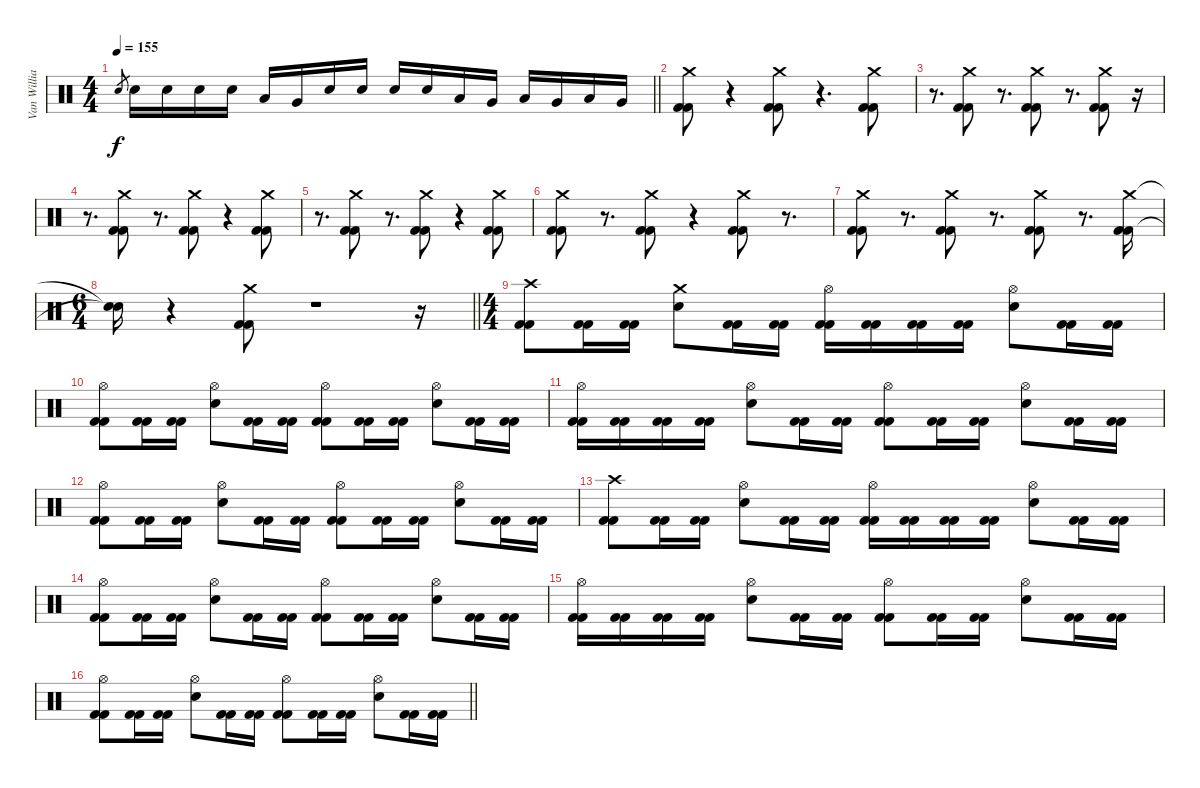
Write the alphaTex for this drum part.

\track ("Van Williams" "Van Willia") {instrument percussion}
\staff {score}
\articulation defaults
\ts (4 4)
\tempo 155
\clef neutral
\barLineRight lightlight
\ks c "Electric Snare (hit)".8{gr dy f} "Electric Snare (hit)".16 "Electric Snare (hit)".16 "Electric Snare (hit)".16 "Electric Snare (hit)".16 "Low Tom (hit)".16 "Very Low Tom (hit)".16 "Electric Snare (hit)".16 "Electric Snare (hit)".16 "Electric Snare (hit)".16 "Electric Snare (hit)".16 "Low Tom (hit)".16 "Very Low Tom (hit)".16 "Low Tom (hit)".16 "Very Low Tom (hit)".16 "Low Tom (hit)".16 "Very Low Tom (hit)".16
|
("Crash medium (hit)" "Kick (hit) 2" "Kick (hit) 2").8 r.4 ("Crash medium (hit)" "Kick (hit) 2" "Kick (hit) 2").8 r.4{d} ("Crash medium (hit)" "Kick (hit) 2" "Kick (hit) 2").8 |
r.8{d} ("Crash medium (hit)" "Kick (hit) 2" "Kick (hit) 2").8 r.8{d} ("Crash medium (hit)" "Kick (hit) 2" "Kick (hit) 2").8 r.8{d} ("Crash medium (hit)" "Kick (hit) 2" "Kick (hit) 2").8 r.16 |
r.8{d} ("Crash medium (hit)" "Kick (hit) 2" "Kick (hit) 2").8 r.8{d} ("Crash medium (hit)" "Kick (hit) 2" "Kick (hit) 2").8 r.4 ("Crash medium (hit)" "Kick (hit) 2" "Kick (hit) 2").8 |
r.8{d} ("Crash medium (hit)" "Kick (hit) 2" "Kick (hit) 2").8 r.8{d} ("Crash medium (hit)" "Kick (hit) 2" "Kick (hit) 2").8 r.4 ("Crash medium (hit)" "Kick (hit) 2" "Kick (hit) 2").8 |
("Crash medium (hit)" "Kick (hit) 2" "Kick (hit) 2").8 r.8{d} ("Crash medium (hit)" "Kick (hit) 2" "Kick (hit) 2").8 r.4 ("Crash medium (hit)" "Kick (hit) 2" "Kick (hit) 2").8 r.8{d} |
("Crash medium (hit)" "Kick (hit) 2" "Kick (hit) 2").8 r.8{d} ("Crash medium (hit)" "Kick (hit) 2" "Kick (hit) 2").8 r.8{d} ("Crash medium (hit)" "Kick (hit) 2" "Kick (hit) 2").8 r.8{d} ("Crash medium (hit)" "Kick (hit) 2" "Kick (hit) 2").16 |
\ts (6 4)
\barLineRight lightlight
("Snare (hit)"{t} "Snare (hit)"{t}).16 r.4 ("Crash medium (hit)" "Kick (hit) 2" "Kick (hit) 2").8 r.1 r.16 |
\ts (4 4)
("Crash high (hit)" "Kick (hit) 2" "Kick (hit) 2").8 ("Kick (hit) 2" "Kick (hit) 2").16 ("Kick (hit) 2" "Kick (hit) 2").16 ("Crash medium (hit)" "Electric Snare (hit)").8 ("Kick (hit) 2" "Kick (hit) 2").16 ("Kick (hit) 2" "Kick (hit) 2").16 ("Hi-Hat (open)" "Kick (hit) 2" "Kick (hit) 2").16 ("Kick (hit) 2" "Kick (hit) 2").16 ("Kick (hit) 2" "Kick (hit) 2").16 ("Kick (hit) 2" "Kick (hit) 2").16 ("Hi-Hat (open)" "Electric Snare (hit)").8 ("Kick (hit) 2" "Kick (hit) 2").16 ("Kick (hit) 2" "Kick (hit) 2").16 |
("Hi-Hat (open)" "Kick (hit) 2" "Kick (hit) 2").8 ("Kick (hit) 2" "Kick (hit) 2").16 ("Kick (hit) 2" "Kick (hit) 2").16 ("Hi-Hat (open)" "Electric Snare (hit)").8 ("Kick (hit) 2" "Kick (hit) 2").16 ("Kick (hit) 2" "Kick (hit) 2").16 ("Hi-Hat (open)" "Kick (hit) 2" "Kick (hit) 2").8 ("Kick (hit) 2" "Kick (hit) 2").16 ("Kick (hit) 2" "Kick (hit) 2").16 ("Hi-Hat (open)" "Electric Snare (hit)").8 ("Kick (hit) 2" "Kick (hit) 2").16 ("Kick (hit) 2" "Kick (hit) 2").16 |
("Hi-Hat (open)" "Kick (hit) 2" "Kick (hit) 2").16 ("Kick (hit) 2" "Kick (hit) 2").16 ("Kick (hit) 2" "Kick (hit) 2").16 ("Kick (hit) 2" "Kick (hit) 2").16 ("Hi-Hat (open)" "Electric Snare (hit)").8 ("Kick (hit) 2" "Kick (hit) 2").16 ("Kick (hit) 2" "Kick (hit) 2").16 ("Hi-Hat (open)" "Kick (hit) 2" "Kick (hit) 2").8 ("Kick (hit) 2" "Kick (hit) 2").16 ("Kick (hit) 2" "Kick (hit) 2").16 ("Hi-Hat (open)" "Electric Snare (hit)").8 ("Kick (hit) 2" "Kick (hit) 2").16 ("Kick (hit) 2" "Kick (hit) 2").16 |
("Hi-Hat (open)" "Kick (hit) 2" "Kick (hit) 2").8 ("Kick (hit) 2" "Kick (hit) 2").16 ("Kick (hit) 2" "Kick (hit) 2").16 ("Hi-Hat (open)" "Electric Snare (hit)").8 ("Kick (hit) 2" "Kick (hit) 2").16 ("Kick (hit) 2" "Kick (hit) 2").16 ("Hi-Hat (open)" "Kick (hit) 2" "Kick (hit) 2").8 ("Kick (hit) 2" "Kick (hit) 2").16 ("Kick (hit) 2" "Kick (hit) 2").16 ("Hi-Hat (open)" "Electric Snare (hit)").8 ("Kick (hit) 2" "Kick (hit) 2").16 ("Kick (hit) 2" "Kick (hit) 2").16 |
("Crash high (hit)" "Kick (hit) 2" "Kick (hit) 2").8 ("Kick (hit) 2" "Kick (hit) 2").16 ("Kick (hit) 2" "Kick (hit) 2").16 ("Hi-Hat (open)" "Electric Snare (hit)").8 ("Kick (hit) 2" "Kick (hit) 2").16 ("Kick (hit) 2" "Kick (hit) 2").16 ("Hi-Hat (open)" "Kick (hit) 2" "Kick (hit) 2").16 ("Kick (hit) 2" "Kick (hit) 2").16 ("Kick (hit) 2" "Kick (hit) 2").16 ("Kick (hit) 2" "Kick (hit) 2").16 ("Hi-Hat (open)" "Electric Snare (hit)").8 ("Kick (hit) 2" "Kick (hit) 2").16 ("Kick (hit) 2" "Kick (hit) 2").16 |
("Hi-Hat (open)" "Kick (hit) 2" "Kick (hit) 2").8 ("Kick (hit) 2" "Kick (hit) 2").16 ("Kick (hit) 2" "Kick (hit) 2").16 ("Hi-Hat (open)" "Electric Snare (hit)").8 ("Kick (hit) 2" "Kick (hit) 2").16 ("Kick (hit) 2" "Kick (hit) 2").16 ("Hi-Hat (open)" "Kick (hit) 2" "Kick (hit) 2").8 ("Kick (hit) 2" "Kick (hit) 2").16 ("Kick (hit) 2" "Kick (hit) 2").16 ("Hi-Hat (open)" "Electric Snare (hit)").8 ("Kick (hit) 2" "Kick (hit) 2").16 ("Kick (hit) 2" "Kick (hit) 2").16 |
("Hi-Hat (open)" "Kick (hit) 2" "Kick (hit) 2").16 ("Kick (hit) 2" "Kick (hit) 2").16 ("Kick (hit) 2" "Kick (hit) 2").16 ("Kick (hit) 2" "Kick (hit) 2").16 ("Hi-Hat (open)" "Electric Snare (hit)").8 ("Kick (hit) 2" "Kick (hit) 2").16 ("Kick (hit) 2" "Kick (hit) 2").16 ("Hi-Hat (open)" "Kick (hit) 2" "Kick (hit) 2").8 ("Kick (hit) 2" "Kick (hit) 2").16 ("Kick (hit) 2" "Kick (hit) 2").16 ("Hi-Hat (open)" "Electric Snare (hit)").8 ("Kick (hit) 2" "Kick (hit) 2").16 ("Kick (hit) 2" "Kick (hit) 2").16 |
\barLineRight lightlight
("Hi-Hat (open)" "Kick (hit) 2" "Kick (hit) 2").8 ("Kick (hit) 2" "Kick (hit) 2").16 ("Kick (hit) 2" "Kick (hit) 2").16 ("Hi-Hat (open)" "Electric Snare (hit)").8 ("Kick (hit) 2" "Kick (hit) 2").16 ("Kick (hit) 2" "Kick (hit) 2").16 ("Hi-Hat (open)" "Kick (hit) 2" "Kick (hit) 2").8 ("Kick (hit) 2" "Kick (hit) 2").16 ("Kick (hit) 2" "Kick (hit) 2").16 ("Hi-Hat (open)" "Electric Snare (hit)").8 ("Kick (hit) 2" "Kick (hit) 2").16 ("Kick (hit) 2" "Kick (hit) 2").16
